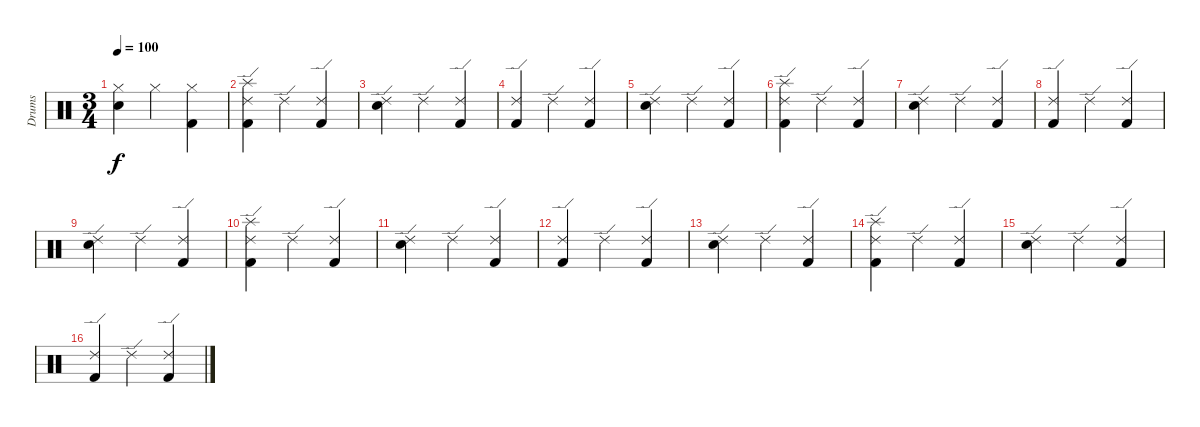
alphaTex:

\track ("Drums" "Drums") {instrument percussion}
\staff {score}
\articulation defaults
\ts (3 4)
\tempo 100
\clef neutral
\ks c
("Hi-Hat (closed)" "Electric Snare (hit)").4{dy f} "Hi-Hat (closed)".4 ("Hi-Hat (closed)" "Kick (hit) 2").4 |
("Ride (edge) 2" "Splash (hit)" "Kick (hit) 2").4 "Ride (edge) 2".4 ("Ride (edge) 2" "Kick (hit) 2").4 |
("Ride (edge) 2" "Electric Snare (hit)").4 "Ride (edge) 2".4 ("Ride (edge) 2" "Kick (hit) 2").4 |
("Ride (edge) 2" "Kick (hit) 2").4 "Ride (edge) 2".4 ("Ride (edge) 2" "Kick (hit) 2").4 |
("Ride (edge) 2" "Electric Snare (hit)").4 "Ride (edge) 2".4 ("Ride (edge) 2" "Kick (hit) 2").4 |
("Ride (edge) 2" "Splash (hit)" "Kick (hit) 2").4 "Ride (edge) 2".4 ("Ride (edge) 2" "Kick (hit) 2").4 |
("Ride (edge) 2" "Electric Snare (hit)").4 "Ride (edge) 2".4 ("Ride (edge) 2" "Kick (hit) 2").4 |
("Ride (edge) 2" "Kick (hit) 2").4 "Ride (edge) 2".4 ("Ride (edge) 2" "Kick (hit) 2").4 |
("Ride (edge) 2" "Electric Snare (hit)").4 "Ride (edge) 2".4 ("Ride (edge) 2" "Kick (hit) 2").4 |
("Ride (edge) 2" "Splash (hit)" "Kick (hit) 2").4 "Ride (edge) 2".4 ("Ride (edge) 2" "Kick (hit) 2").4 |
("Ride (edge) 2" "Electric Snare (hit)").4 "Ride (edge) 2".4 ("Ride (edge) 2" "Kick (hit) 2").4 |
("Ride (edge) 2" "Kick (hit) 2").4 "Ride (edge) 2".4 ("Ride (edge) 2" "Kick (hit) 2").4 |
("Ride (edge) 2" "Electric Snare (hit)").4 "Ride (edge) 2".4 ("Ride (edge) 2" "Kick (hit) 2").4 |
("Ride (edge) 2" "Splash (hit)" "Kick (hit) 2").4 "Ride (edge) 2".4 ("Ride (edge) 2" "Kick (hit) 2").4 |
("Ride (edge) 2" "Electric Snare (hit)").4 "Ride (edge) 2".4 ("Ride (edge) 2" "Kick (hit) 2").4 |
("Ride (edge) 2" "Kick (hit) 2").4 "Ride (edge) 2".4 ("Ride (edge) 2" "Kick (hit) 2").4
